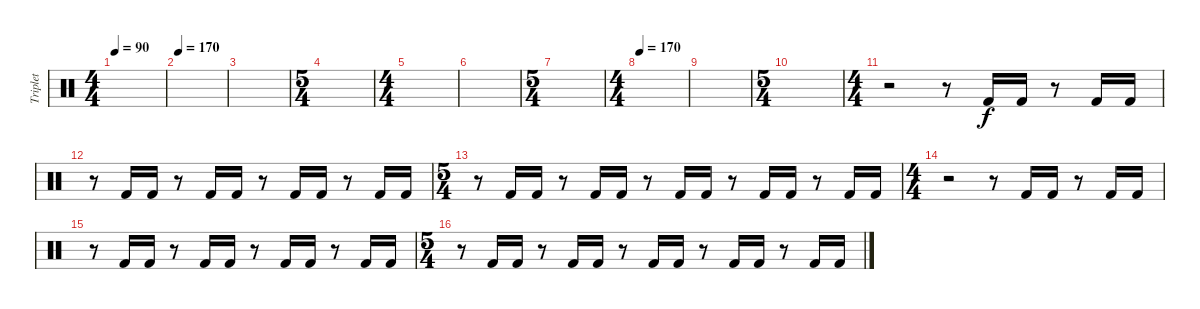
\track ("Triplet" "Triplet") {instrument percussion}
\staff {score}
\articulation defaults
\ts (4 4)
\tempo 90
\clef neutral
\ks c
|
\tempo 170
|
|
\ts (5 4)
|
\ts (4 4)
|
|
\ts (5 4)
|
\ts (4 4)
\tempo 170
|
|
\ts (5 4)
|
\ts (4 4)
r.2 r.8 "Kick (hit) 2".16 "Kick (hit) 2".16 r.8 "Kick (hit) 2".16 "Kick (hit) 2".16 |
r.8 "Kick (hit) 2".16 "Kick (hit) 2".16 r.8 "Kick (hit) 2".16 "Kick (hit) 2".16 r.8 "Kick (hit) 2".16 "Kick (hit) 2".16 r.8 "Kick (hit) 2".16 "Kick (hit) 2".16 |
\ts (5 4)
r.8 "Kick (hit) 2".16 "Kick (hit) 2".16 r.8 "Kick (hit) 2".16 "Kick (hit) 2".16 r.8 "Kick (hit) 2".16 "Kick (hit) 2".16 r.8 "Kick (hit) 2".16 "Kick (hit) 2".16 r.8 "Kick (hit) 2".16 "Kick (hit) 2".16 |
\ts (4 4)
r.2 r.8 "Kick (hit) 2".16 "Kick (hit) 2".16 r.8 "Kick (hit) 2".16 "Kick (hit) 2".16 |
r.8 "Kick (hit) 2".16 "Kick (hit) 2".16 r.8 "Kick (hit) 2".16 "Kick (hit) 2".16 r.8 "Kick (hit) 2".16 "Kick (hit) 2".16 r.8 "Kick (hit) 2".16 "Kick (hit) 2".16 |
\ts (5 4)
r.8 "Kick (hit) 2".16 "Kick (hit) 2".16 r.8 "Kick (hit) 2".16 "Kick (hit) 2".16 r.8 "Kick (hit) 2".16 "Kick (hit) 2".16 r.8 "Kick (hit) 2".16 "Kick (hit) 2".16 r.8 "Kick (hit) 2".16 "Kick (hit) 2".16
